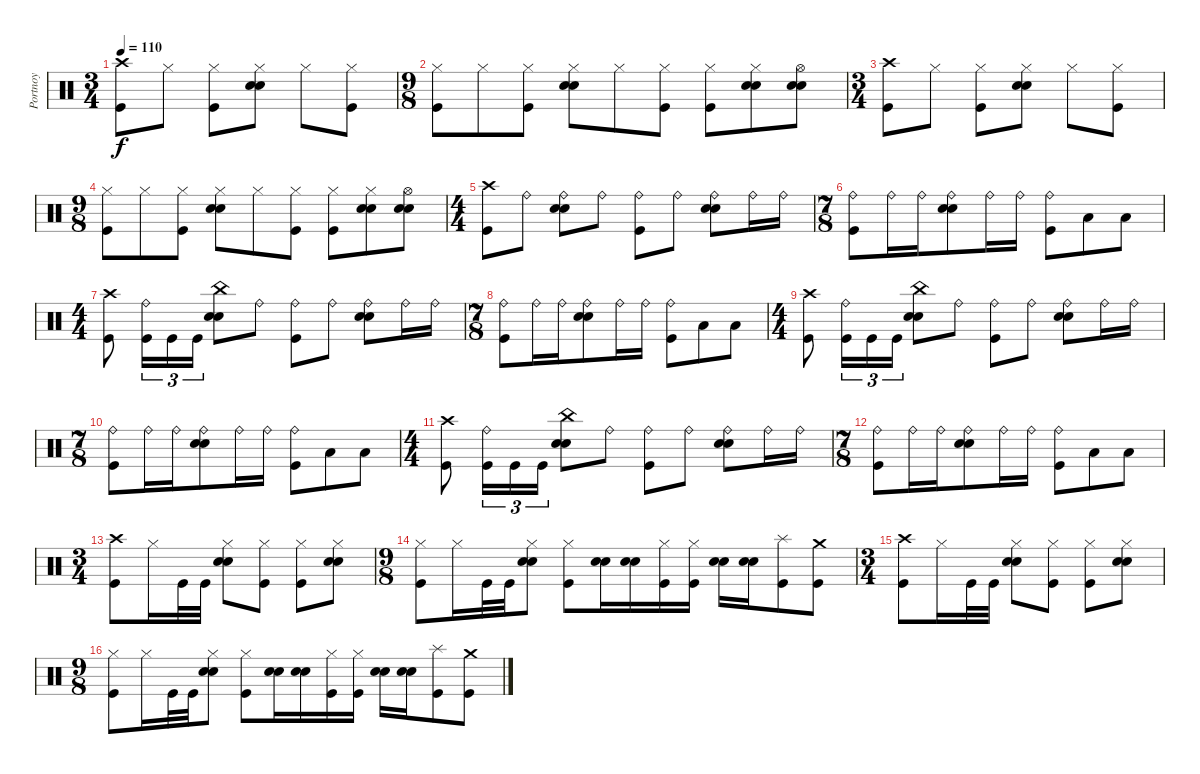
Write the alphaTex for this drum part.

\track ("Portnoy" "Portnoy") {instrument percussion}
\staff {score}
\articulation defaults
\ts (3 4)
\tempo 110
\clef neutral
\ks c
("Crash high (hit)" "Kick (hit)").8{dy f} "Hi-Hat (closed)".8 ("Hi-Hat (closed)" "Kick (hit)").8 ("Hi-Hat (closed)" "Snare (hit) 2" "Electric Snare (hit)").8 "Hi-Hat (closed)".8 ("Hi-Hat (closed)" "Kick (hit)").8 |
\ts (9 8)
("Hi-Hat (closed)" "Kick (hit)").8 "Hi-Hat (closed)".8 ("Hi-Hat (closed)" "Kick (hit)").8 ("Hi-Hat (closed)" "Snare (hit) 2" "Electric Snare (hit)").8 "Hi-Hat (closed)".8 ("Hi-Hat (closed)" "Kick (hit)").8 ("Hi-Hat (closed)" "Kick (hit)").8 ("Hi-Hat (closed)" "Snare (hit) 2" "Electric Snare (hit)").8 ("Hi-Hat (open)" "Snare (hit) 2" "Electric Snare (hit)").8 |
\ts (3 4)
("Crash high (hit)" "Kick (hit)").8 "Hi-Hat (closed)".8 ("Hi-Hat (closed)" "Kick (hit)").8 ("Hi-Hat (closed)" "Snare (hit) 2" "Electric Snare (hit)").8 "Hi-Hat (closed)".8 ("Hi-Hat (closed)" "Kick (hit)").8 |
\ts (9 8)
("Hi-Hat (closed)" "Kick (hit)").8 "Hi-Hat (closed)".8 ("Hi-Hat (closed)" "Kick (hit)").8 ("Hi-Hat (closed)" "Snare (hit) 2" "Electric Snare (hit)").8 "Hi-Hat (closed)".8 ("Hi-Hat (closed)" "Kick (hit)").8 ("Hi-Hat (closed)" "Kick (hit)").8 ("Hi-Hat (closed)" "Snare (hit) 2" "Electric Snare (hit)").8 ("Hi-Hat (open)" "Snare (hit) 2" "Electric Snare (hit)").8 |
\ts (4 4)
("Crash high (hit)" "Kick (hit)").8 "Ride (bell)".8 ("Ride (bell)" "Snare (hit) 2" "Electric Snare (hit)").8 "Ride (bell)".8 ("Ride (bell)" "Kick (hit)").8 "Ride (bell)".8 ("Ride (bell)" "Snare (hit) 2" "Electric Snare (hit)").8 "Ride (bell)".16 "Ride (bell)".16 |
\ts (7 8)
("Ride (bell)" "Kick (hit)").8 "Ride (bell)".16 "Ride (bell)".16 ("Ride (bell)" "Snare (hit) 2" "Electric Snare (hit)").8 "Ride (bell)".16 "Ride (bell)".16 ("Ride (bell)" "Kick (hit)").8 "Low Tom (hit)".8 "Low Tom (hit)".8 |
\ts (4 4)
("Crash high (hit)" "Kick (hit)").8 ("Ride (bell)" "Kick (hit)").16{tu (3 2)} "Kick (hit)".16{tu (3 2)} "Kick (hit)".16{tu (3 2)} ("China (hit)" "Snare (hit) 2" "Electric Snare (hit)").8 "Ride (bell)".8 ("Ride (bell)" "Kick (hit)").8 "Ride (bell)".8 ("Ride (bell)" "Snare (hit) 2" "Electric Snare (hit)").8 "Ride (bell)".16 "Ride (bell)".16 |
\ts (7 8)
("Ride (bell)" "Kick (hit)").8 "Ride (bell)".16 "Ride (bell)".16 ("Ride (bell)" "Snare (hit) 2" "Electric Snare (hit)").8 "Ride (bell)".16 "Ride (bell)".16 ("Ride (bell)" "Kick (hit)").8 "Low Tom (hit)".8 "Low Tom (hit)".8 |
\ts (4 4)
("Crash high (hit)" "Kick (hit)").8 ("Ride (bell)" "Kick (hit)").16{tu (3 2)} "Kick (hit)".16{tu (3 2)} "Kick (hit)".16{tu (3 2)} ("China (hit)" "Snare (hit) 2" "Electric Snare (hit)").8 "Ride (bell)".8 ("Ride (bell)" "Kick (hit)").8 "Ride (bell)".8 ("Ride (bell)" "Snare (hit) 2" "Electric Snare (hit)").8 "Ride (bell)".16 "Ride (bell)".16 |
\ts (7 8)
("Ride (bell)" "Kick (hit)").8 "Ride (bell)".16 "Ride (bell)".16 ("Ride (bell)" "Snare (hit) 2" "Electric Snare (hit)").8 "Ride (bell)".16 "Ride (bell)".16 ("Ride (bell)" "Kick (hit)").8 "Low Tom (hit)".8 "Low Tom (hit)".8 |
\ts (4 4)
("Crash high (hit)" "Kick (hit)").8 ("Ride (bell)" "Kick (hit)").16{tu (3 2)} "Kick (hit)".16{tu (3 2)} "Kick (hit)".16{tu (3 2)} ("China (hit)" "Snare (hit) 2" "Electric Snare (hit)").8 "Ride (bell)".8 ("Ride (bell)" "Kick (hit)").8 "Ride (bell)".8 ("Ride (bell)" "Snare (hit) 2" "Electric Snare (hit)").8 "Ride (bell)".16 "Ride (bell)".16 |
\ts (7 8)
("Ride (bell)" "Kick (hit)").8 "Ride (bell)".16 "Ride (bell)".16 ("Ride (bell)" "Snare (hit) 2" "Electric Snare (hit)").8 "Ride (bell)".16 "Ride (bell)".16 ("Ride (bell)" "Kick (hit)").8 "Low Tom (hit)".8 "Low Tom (hit)".8 |
\ts (3 4)
("Crash high (hit)" "Kick (hit)").8 "Hi-Hat (closed)".16 "Kick (hit)".32 "Kick (hit)".32 ("Hi-Hat (closed)" "Snare (hit) 2" "Electric Snare (hit)").8 ("Hi-Hat (closed)" "Kick (hit)").8 ("Hi-Hat (closed)" "Kick (hit)").8 ("Hi-Hat (closed)" "Snare (hit) 2" "Electric Snare (hit)").8 |
\ts (9 8)
("Hi-Hat (closed)" "Kick (hit)").8 "Hi-Hat (closed)".16 "Kick (hit)".32 "Kick (hit)".32 ("Hi-Hat (closed)" "Snare (hit) 2" "Electric Snare (hit)").8 ("Hi-Hat (closed)" "Kick (hit)").8 ("Snare (hit) 2" "Electric Snare (hit)").16 ("Snare (hit) 2" "Electric Snare (hit)").16 ("Hi-Hat (closed)" "Kick (hit)").16 ("Hi-Hat (closed)" "Kick (hit)").16 ("Snare (hit) 2" "Electric Snare (hit)").16 ("Snare (hit) 2" "Electric Snare (hit)").16 ("Splash (hit)" "Kick (hit)").8 ("Crash medium (hit)" "Kick (hit)").8 |
\ts (3 4)
("Crash high (hit)" "Kick (hit)").8 "Hi-Hat (closed)".16 "Kick (hit)".32 "Kick (hit)".32 ("Hi-Hat (closed)" "Snare (hit) 2" "Electric Snare (hit)").8 ("Hi-Hat (closed)" "Kick (hit)").8 ("Hi-Hat (closed)" "Kick (hit)").8 ("Hi-Hat (closed)" "Snare (hit) 2" "Electric Snare (hit)").8 |
\ts (9 8)
("Hi-Hat (closed)" "Kick (hit)").8 "Hi-Hat (closed)".16 "Kick (hit)".32 "Kick (hit)".32 ("Hi-Hat (closed)" "Snare (hit) 2" "Electric Snare (hit)").8 ("Hi-Hat (closed)" "Kick (hit)").8 ("Snare (hit) 2" "Electric Snare (hit)").16 ("Snare (hit) 2" "Electric Snare (hit)").16 ("Hi-Hat (closed)" "Kick (hit)").16 ("Hi-Hat (closed)" "Kick (hit)").16 ("Snare (hit) 2" "Electric Snare (hit)").16 ("Snare (hit) 2" "Electric Snare (hit)").16 ("Splash (hit)" "Kick (hit)").8 ("Crash medium (hit)" "Kick (hit)").8
